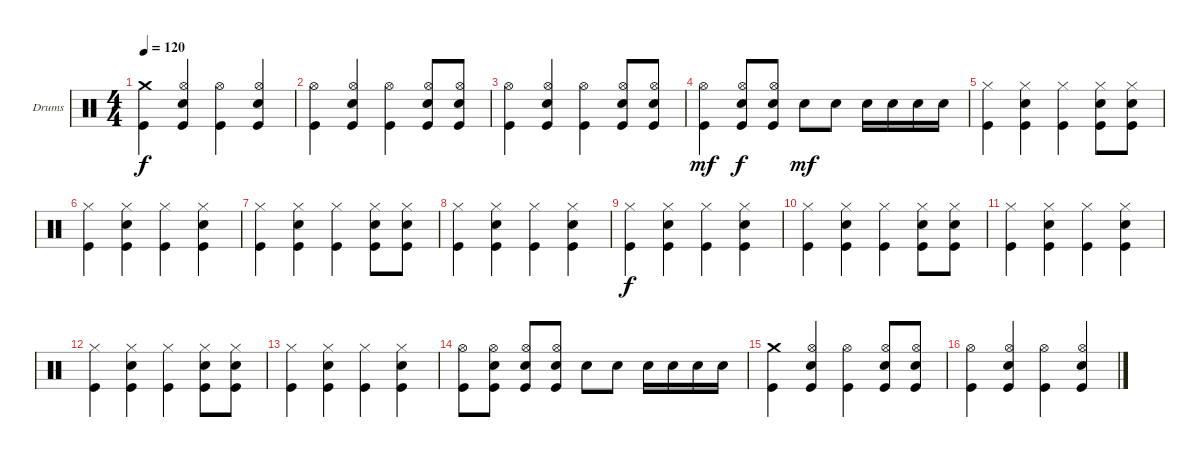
\bracketExtendMode groupsimilarinstruments
\firstSystemTrackNameOrientation horizontal
\otherSystemsTrackNameOrientation horizontal
\track ("Drumkit" "Drums") {instrument percussion}
\staff {score}
\articulation defaults
\ts (4 4)
\tempo 120
\clef neutral
\ks c
("Kick (hit)" "Crash medium (hit)").4{dy f} ("Kick (hit)" "Hi-Hat (open)" "Snare (hit) 2").4 ("Kick (hit)" "Hi-Hat (open)").4 ("Kick (hit)" "Hi-Hat (open)" "Snare (hit) 2").4 |
("Kick (hit)" "Hi-Hat (open)").4 ("Kick (hit)" "Hi-Hat (open)" "Snare (hit) 2").4 ("Kick (hit)" "Hi-Hat (open)").4 ("Kick (hit)" "Hi-Hat (open)" "Snare (hit) 2").8 ("Kick (hit)" "Hi-Hat (open)" "Snare (hit) 2").8 |
("Kick (hit)" "Hi-Hat (open)").4 ("Kick (hit)" "Hi-Hat (open)" "Snare (hit) 2").4 ("Kick (hit)" "Hi-Hat (open)").4 ("Kick (hit)" "Hi-Hat (open)" "Snare (hit) 2").8 ("Kick (hit)" "Hi-Hat (open)" "Snare (hit) 2").8 |
("Hi-Hat (open)" "Kick (hit)").4{dy mf} ("Hi-Hat (open)" "Kick (hit)" "Snare (hit) 2").8{dy f} ("Hi-Hat (open)" "Snare (hit) 2" "Kick (hit)").8 "Snare (hit) 2".8{dy mf} "Snare (hit) 2".8 "Snare (hit) 2".16 "Snare (hit) 2".16 "Snare (hit) 2".16 "Snare (hit) 2".16 |
("Hi-Hat (closed)" "Kick (hit)").4 ("Hi-Hat (closed)" "Kick (hit)" "Snare (hit) 2").4 ("Hi-Hat (closed)" "Kick (hit)").4 ("Hi-Hat (closed)" "Kick (hit)" "Snare (hit) 2").8 ("Hi-Hat (closed)" "Kick (hit)" "Snare (hit) 2").8 |
("Hi-Hat (closed)" "Kick (hit)").4 ("Hi-Hat (closed)" "Kick (hit)" "Snare (hit) 2").4 ("Hi-Hat (closed)" "Kick (hit)").4 ("Hi-Hat (closed)" "Kick (hit)" "Snare (hit) 2").4 |
("Hi-Hat (closed)" "Kick (hit)").4 ("Hi-Hat (closed)" "Kick (hit)" "Snare (hit) 2").4 ("Hi-Hat (closed)" "Kick (hit)").4 ("Hi-Hat (closed)" "Kick (hit)" "Snare (hit) 2").8 ("Hi-Hat (closed)" "Kick (hit)" "Snare (hit) 2").8 |
("Hi-Hat (closed)" "Kick (hit)").4 ("Hi-Hat (closed)" "Kick (hit)" "Snare (hit) 2").4 ("Hi-Hat (closed)" "Kick (hit)").4 ("Hi-Hat (closed)" "Kick (hit)" "Snare (hit) 2").4 |
("Hi-Hat (closed)" "Kick (hit)").4{dy f} ("Hi-Hat (closed)" "Kick (hit)" "Snare (hit) 2").4 ("Hi-Hat (closed)" "Kick (hit)").4 ("Hi-Hat (closed)" "Kick (hit)" "Snare (hit) 2").4 |
("Hi-Hat (closed)" "Kick (hit)").4 ("Hi-Hat (closed)" "Kick (hit)" "Snare (hit) 2").4 ("Hi-Hat (closed)" "Kick (hit)").4 ("Hi-Hat (closed)" "Kick (hit)" "Snare (hit) 2").8 ("Hi-Hat (closed)" "Kick (hit)" "Snare (hit) 2").8 |
("Hi-Hat (closed)" "Kick (hit)").4 ("Hi-Hat (closed)" "Kick (hit)" "Snare (hit) 2").4 ("Hi-Hat (closed)" "Kick (hit)").4 ("Hi-Hat (closed)" "Kick (hit)" "Snare (hit) 2").4 |
("Hi-Hat (closed)" "Kick (hit)").4 ("Hi-Hat (closed)" "Kick (hit)" "Snare (hit) 2").4 ("Hi-Hat (closed)" "Kick (hit)").4 ("Hi-Hat (closed)" "Kick (hit)" "Snare (hit) 2").8 ("Hi-Hat (closed)" "Kick (hit)" "Snare (hit) 2").8 |
("Hi-Hat (closed)" "Kick (hit)").4 ("Hi-Hat (closed)" "Kick (hit)" "Snare (hit) 2").4 ("Hi-Hat (closed)" "Kick (hit)").4 ("Hi-Hat (closed)" "Kick (hit)" "Snare (hit) 2").4 |
("Hi-Hat (open)" "Kick (hit)").8 ("Hi-Hat (open)" "Kick (hit)" "Snare (hit) 2").8 ("Hi-Hat (open)" "Snare (hit) 2" "Kick (hit)").8 ("Hi-Hat (open)" "Kick (hit)" "Snare (hit) 2").8 "Snare (hit) 2".8 "Snare (hit) 2".8 "Snare (hit) 2".16 "Snare (hit) 2".16 "Snare (hit) 2".16 "Snare (hit) 2".16 |
("Kick (hit)" "Crash medium (hit)").4 ("Kick (hit)" "Hi-Hat (open)" "Snare (hit) 2").4 ("Kick (hit)" "Hi-Hat (open)").4 ("Kick (hit)" "Hi-Hat (open)" "Snare (hit) 2").8 ("Kick (hit)" "Hi-Hat (open)" "Snare (hit) 2").8 |
("Kick (hit)" "Hi-Hat (open)").4 ("Kick (hit)" "Hi-Hat (open)" "Snare (hit) 2").4 ("Kick (hit)" "Hi-Hat (open)").4 ("Kick (hit)" "Hi-Hat (open)" "Snare (hit) 2").4
